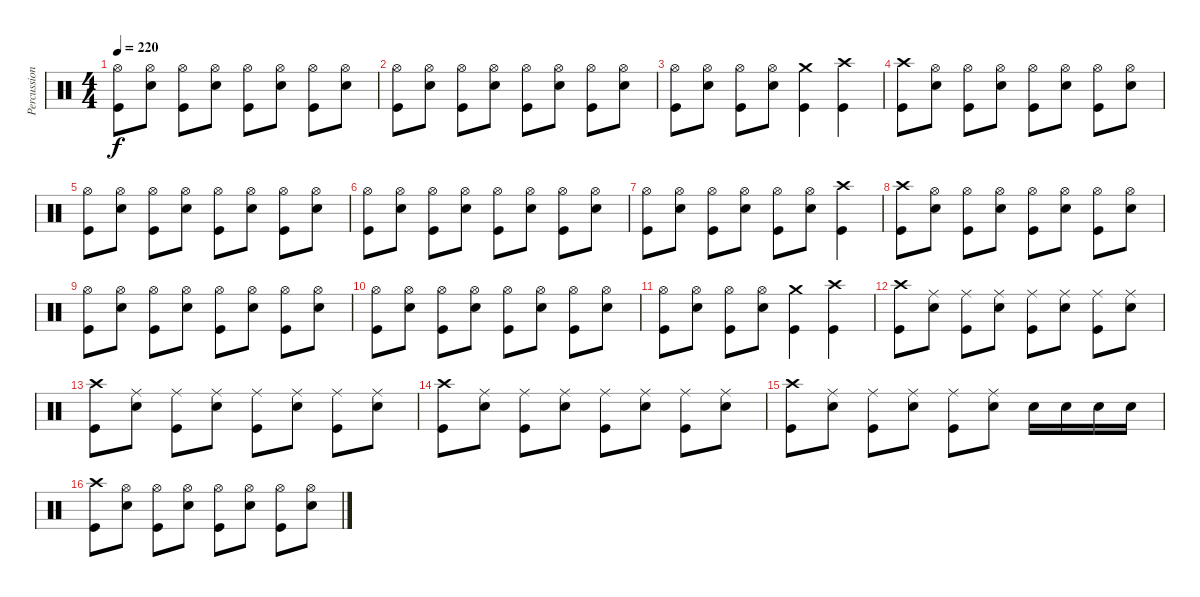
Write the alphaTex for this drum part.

\track ("Percussion" "Percussion") {instrument percussion}
\staff {score}
\articulation defaults
\ts (4 4)
\tempo 220
\clef neutral
\ks c
("Hi-Hat (open)" "Kick (hit)").8{dy f} ("Hi-Hat (open)" "Snare (hit) 2").8 ("Hi-Hat (open)" "Kick (hit)").8 ("Hi-Hat (open)" "Snare (hit) 2").8 ("Hi-Hat (open)" "Kick (hit)").8 ("Hi-Hat (open)" "Snare (hit) 2").8 ("Hi-Hat (open)" "Kick (hit)").8 ("Hi-Hat (open)" "Snare (hit) 2").8 |
("Hi-Hat (open)" "Kick (hit)").8 ("Hi-Hat (open)" "Snare (hit) 2").8 ("Hi-Hat (open)" "Kick (hit)").8 ("Hi-Hat (open)" "Snare (hit) 2").8 ("Hi-Hat (open)" "Kick (hit)").8 ("Hi-Hat (open)" "Snare (hit) 2").8 ("Hi-Hat (open)" "Kick (hit)").8 ("Hi-Hat (open)" "Snare (hit) 2").8 |
("Hi-Hat (open)" "Kick (hit)").8 ("Hi-Hat (open)" "Snare (hit) 2").8 ("Hi-Hat (open)" "Kick (hit)").8 ("Hi-Hat (open)" "Snare (hit) 2").8 ("Crash medium (hit)" "Kick (hit)").4 ("Crash high (hit)" "Kick (hit)").4 |
("Crash high (hit)" "Kick (hit)").8 ("Hi-Hat (open)" "Snare (hit) 2").8 ("Hi-Hat (open)" "Kick (hit)").8 ("Hi-Hat (open)" "Snare (hit) 2").8 ("Hi-Hat (open)" "Kick (hit)").8 ("Hi-Hat (open)" "Snare (hit) 2").8 ("Hi-Hat (open)" "Kick (hit)").8 ("Hi-Hat (open)" "Snare (hit) 2").8 |
("Hi-Hat (open)" "Kick (hit)").8 ("Hi-Hat (open)" "Snare (hit) 2").8 ("Hi-Hat (open)" "Kick (hit)").8 ("Hi-Hat (open)" "Snare (hit) 2").8 ("Hi-Hat (open)" "Kick (hit)").8 ("Hi-Hat (open)" "Snare (hit) 2").8 ("Hi-Hat (open)" "Kick (hit)").8 ("Hi-Hat (open)" "Snare (hit) 2").8 |
("Hi-Hat (open)" "Kick (hit)").8 ("Hi-Hat (open)" "Snare (hit) 2").8 ("Hi-Hat (open)" "Kick (hit)").8 ("Hi-Hat (open)" "Snare (hit) 2").8 ("Hi-Hat (open)" "Kick (hit)").8 ("Hi-Hat (open)" "Snare (hit) 2").8 ("Hi-Hat (open)" "Kick (hit)").8 ("Hi-Hat (open)" "Snare (hit) 2").8 |
("Hi-Hat (open)" "Kick (hit)").8 ("Hi-Hat (open)" "Snare (hit) 2").8 ("Hi-Hat (open)" "Kick (hit)").8 ("Hi-Hat (open)" "Snare (hit) 2").8 ("Hi-Hat (open)" "Kick (hit)").8 ("Hi-Hat (open)" "Snare (hit) 2").8 ("Crash high (hit)" "Kick (hit)").4 |
("Crash high (hit)" "Kick (hit)").8 ("Hi-Hat (open)" "Snare (hit) 2").8 ("Hi-Hat (open)" "Kick (hit)").8 ("Hi-Hat (open)" "Snare (hit) 2").8 ("Hi-Hat (open)" "Kick (hit)").8 ("Hi-Hat (open)" "Snare (hit) 2").8 ("Hi-Hat (open)" "Kick (hit)").8 ("Hi-Hat (open)" "Snare (hit) 2").8 |
("Hi-Hat (open)" "Kick (hit)").8 ("Hi-Hat (open)" "Snare (hit) 2").8 ("Hi-Hat (open)" "Kick (hit)").8 ("Hi-Hat (open)" "Snare (hit) 2").8 ("Hi-Hat (open)" "Kick (hit)").8 ("Hi-Hat (open)" "Snare (hit) 2").8 ("Hi-Hat (open)" "Kick (hit)").8 ("Hi-Hat (open)" "Snare (hit) 2").8 |
("Hi-Hat (open)" "Kick (hit)").8 ("Hi-Hat (open)" "Snare (hit) 2").8 ("Hi-Hat (open)" "Kick (hit)").8 ("Hi-Hat (open)" "Snare (hit) 2").8 ("Hi-Hat (open)" "Kick (hit)").8 ("Hi-Hat (open)" "Snare (hit) 2").8 ("Hi-Hat (open)" "Kick (hit)").8 ("Hi-Hat (open)" "Snare (hit) 2").8 |
("Hi-Hat (open)" "Kick (hit)").8 ("Hi-Hat (open)" "Snare (hit) 2").8 ("Hi-Hat (open)" "Kick (hit)").8 ("Hi-Hat (open)" "Snare (hit) 2").8 ("Crash medium (hit)" "Kick (hit)").4 ("Crash high (hit)" "Kick (hit)").4 |
("Crash high (hit)" "Kick (hit)").8 ("Ride (middle)" "Snare (hit) 2").8 ("Ride (middle)" "Kick (hit)").8 ("Ride (middle)" "Snare (hit) 2").8 ("Ride (middle)" "Kick (hit)").8 ("Ride (middle)" "Snare (hit) 2").8 ("Ride (middle)" "Kick (hit)").8 ("Ride (middle)" "Snare (hit) 2").8 |
("Crash high (hit)" "Kick (hit)").8 ("Ride (middle)" "Snare (hit) 2").8 ("Ride (middle)" "Kick (hit)").8 ("Ride (middle)" "Snare (hit) 2").8 ("Ride (middle)" "Kick (hit)").8 ("Ride (middle)" "Snare (hit) 2").8 ("Ride (middle)" "Kick (hit)").8 ("Ride (middle)" "Snare (hit) 2").8 |
("Crash high (hit)" "Kick (hit)").8 ("Ride (middle)" "Snare (hit) 2").8 ("Ride (middle)" "Kick (hit)").8 ("Ride (middle)" "Snare (hit) 2").8 ("Ride (middle)" "Kick (hit)").8 ("Ride (middle)" "Snare (hit) 2").8 ("Ride (middle)" "Kick (hit)").8 ("Ride (middle)" "Snare (hit) 2").8 |
("Crash high (hit)" "Kick (hit)").8 ("Ride (middle)" "Snare (hit) 2").8 ("Ride (middle)" "Kick (hit)").8 ("Ride (middle)" "Snare (hit) 2").8 ("Ride (middle)" "Kick (hit)").8 ("Ride (middle)" "Snare (hit) 2").8 "Snare (hit) 2".16 "Snare (hit) 2".16 "Snare (hit) 2".16 "Snare (hit) 2".16 |
("Crash high (hit)" "Kick (hit)").8 ("Hi-Hat (open)" "Snare (hit) 2").8 ("Hi-Hat (open)" "Kick (hit)").8 ("Hi-Hat (open)" "Snare (hit) 2").8 ("Hi-Hat (open)" "Kick (hit)").8 ("Hi-Hat (open)" "Snare (hit) 2").8 ("Hi-Hat (open)" "Kick (hit)").8 ("Hi-Hat (open)" "Snare (hit) 2").8
